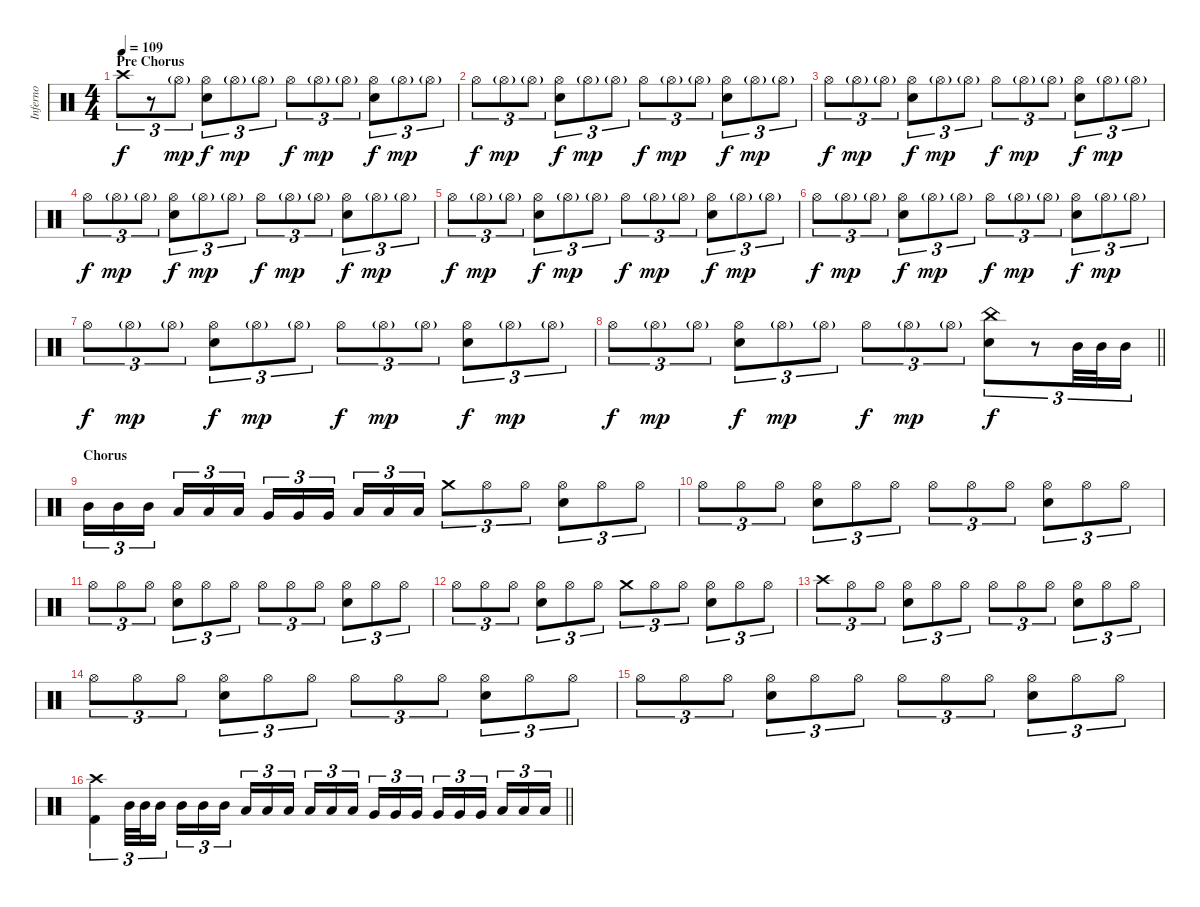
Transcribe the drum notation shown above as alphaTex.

\track ("Inferno" "Inferno") {instrument percussion}
\staff {score}
\articulation defaults
\ts (4 4)
\section ("" "Pre Chorus")
\tempo 109
\clef neutral
\ks c "Crash high (hit)".8{tu (3 2) dy f}
r.8{tu (3 2)} "Hi-Hat (open)"{g}.8{tu (3 2) dy mp} ("Hi-Hat (open)" "Snare (hit) 2").8{tu (3 2) dy f} "Hi-Hat (open)"{g}.8{tu (3 2) dy mp} "Hi-Hat (open)"{g}.8{tu (3 2)} "Hi-Hat (open)".8{tu (3 2) dy f} "Hi-Hat (open)"{g}.8{tu (3 2) dy mp} "Hi-Hat (open)"{g}.8{tu (3 2)} ("Hi-Hat (open)" "Snare (hit) 2").8{tu (3 2) dy f} "Hi-Hat (open)"{g}.8{tu (3 2) dy mp} "Hi-Hat (open)"{g}.8{tu (3 2)} |
"Hi-Hat (open)".8{tu (3 2) dy f} "Hi-Hat (open)"{g}.8{tu (3 2) dy mp} "Hi-Hat (open)"{g}.8{tu (3 2)} ("Hi-Hat (open)" "Snare (hit) 2").8{tu (3 2) dy f} "Hi-Hat (open)"{g}.8{tu (3 2) dy mp} "Hi-Hat (open)"{g}.8{tu (3 2)} "Hi-Hat (open)".8{tu (3 2) dy f} "Hi-Hat (open)"{g}.8{tu (3 2) dy mp} "Hi-Hat (open)"{g}.8{tu (3 2)} ("Hi-Hat (open)" "Snare (hit) 2").8{tu (3 2) dy f} "Hi-Hat (open)"{g}.8{tu (3 2) dy mp} "Hi-Hat (open)"{g}.8{tu (3 2)} |
"Hi-Hat (open)".8{tu (3 2) dy f} "Hi-Hat (open)"{g}.8{tu (3 2) dy mp} "Hi-Hat (open)"{g}.8{tu (3 2)} ("Hi-Hat (open)" "Snare (hit) 2").8{tu (3 2) dy f} "Hi-Hat (open)"{g}.8{tu (3 2) dy mp} "Hi-Hat (open)"{g}.8{tu (3 2)} "Hi-Hat (open)".8{tu (3 2) dy f} "Hi-Hat (open)"{g}.8{tu (3 2) dy mp} "Hi-Hat (open)"{g}.8{tu (3 2)} ("Hi-Hat (open)" "Snare (hit) 2").8{tu (3 2) dy f} "Hi-Hat (open)"{g}.8{tu (3 2) dy mp} "Hi-Hat (open)"{g}.8{tu (3 2)} |
"Hi-Hat (open)".8{tu (3 2) dy f} "Hi-Hat (open)"{g}.8{tu (3 2) dy mp} "Hi-Hat (open)"{g}.8{tu (3 2)} ("Hi-Hat (open)" "Snare (hit) 2").8{tu (3 2) dy f} "Hi-Hat (open)"{g}.8{tu (3 2) dy mp} "Hi-Hat (open)"{g}.8{tu (3 2)} "Hi-Hat (open)".8{tu (3 2) dy f} "Hi-Hat (open)"{g}.8{tu (3 2) dy mp} "Hi-Hat (open)"{g}.8{tu (3 2)} ("Hi-Hat (open)" "Snare (hit) 2").8{tu (3 2) dy f} "Hi-Hat (open)"{g}.8{tu (3 2) dy mp} "Hi-Hat (open)"{g}.8{tu (3 2)} |
"Hi-Hat (open)".8{tu (3 2) dy f} "Hi-Hat (open)"{g}.8{tu (3 2) dy mp} "Hi-Hat (open)"{g}.8{tu (3 2)} ("Hi-Hat (open)" "Snare (hit) 2").8{tu (3 2) dy f} "Hi-Hat (open)"{g}.8{tu (3 2) dy mp} "Hi-Hat (open)"{g}.8{tu (3 2)} "Hi-Hat (open)".8{tu (3 2) dy f} "Hi-Hat (open)"{g}.8{tu (3 2) dy mp} "Hi-Hat (open)"{g}.8{tu (3 2)} ("Hi-Hat (open)" "Snare (hit) 2").8{tu (3 2) dy f} "Hi-Hat (open)"{g}.8{tu (3 2) dy mp} "Hi-Hat (open)"{g}.8{tu (3 2)} |
"Hi-Hat (open)".8{tu (3 2) dy f} "Hi-Hat (open)"{g}.8{tu (3 2) dy mp} "Hi-Hat (open)"{g}.8{tu (3 2)} ("Hi-Hat (open)" "Snare (hit) 2").8{tu (3 2) dy f} "Hi-Hat (open)"{g}.8{tu (3 2) dy mp} "Hi-Hat (open)"{g}.8{tu (3 2)} "Hi-Hat (open)".8{tu (3 2) dy f} "Hi-Hat (open)"{g}.8{tu (3 2) dy mp} "Hi-Hat (open)"{g}.8{tu (3 2)} ("Hi-Hat (open)" "Snare (hit) 2").8{tu (3 2) dy f} "Hi-Hat (open)"{g}.8{tu (3 2) dy mp} "Hi-Hat (open)"{g}.8{tu (3 2)} |
"Hi-Hat (open)".8{tu (3 2) dy f} "Hi-Hat (open)"{g}.8{tu (3 2) dy mp} "Hi-Hat (open)"{g}.8{tu (3 2)} ("Hi-Hat (open)" "Snare (hit) 2").8{tu (3 2) dy f} "Hi-Hat (open)"{g}.8{tu (3 2) dy mp} "Hi-Hat (open)"{g}.8{tu (3 2)} "Hi-Hat (open)".8{tu (3 2) dy f} "Hi-Hat (open)"{g}.8{tu (3 2) dy mp} "Hi-Hat (open)"{g}.8{tu (3 2)} ("Hi-Hat (open)" "Snare (hit) 2").8{tu (3 2) dy f} "Hi-Hat (open)"{g}.8{tu (3 2) dy mp} "Hi-Hat (open)"{g}.8{tu (3 2)} |
\barLineRight lightlight "Hi-Hat (open)".8{tu (3 2) dy f} "Hi-Hat (open)"{g}.8{tu (3 2) dy mp} "Hi-Hat (open)"{g}.8{tu (3 2)}
("Hi-Hat (open)" "Snare (hit) 2").8{tu (3 2) dy f} "Hi-Hat (open)"{g}.8{tu (3 2) dy mp} "Hi-Hat (open)"{g}.8{tu (3 2)} "Hi-Hat (open)".8{tu (3 2) dy f} "Hi-Hat (open)"{g}.8{tu (3 2) dy mp} "Hi-Hat (open)"{g}.8{tu (3 2)} ("China (hit)" "Snare (hit) 2").8{tu (3 2) dy f} r.8{tu (3 2)} "Mid Tom (hit)".32{tu (3 2)} "Mid Tom (hit)".32{tu (3 2)} "Mid Tom (hit)".16{tu (3 2)} |
\section ("" "Chorus")
"Mid Tom (hit)".16{tu (3 2)} "Mid Tom (hit)".16{tu (3 2)} "Mid Tom (hit)".16{tu (3 2) beam splitsecondary} "Low Tom (hit)".16{tu (3 2)} "Low Tom (hit)".16{tu (3 2)} "Low Tom (hit)".16{tu (3 2)} "Very Low Tom (hit)".16{tu (3 2)} "Very Low Tom (hit)".16{tu (3 2)} "Very Low Tom (hit)".16{tu (3 2) beam splitsecondary} "Low Floor Tom (hit)".16{tu (3 2)} "Low Floor Tom (hit)".16{tu (3 2)} "Low Floor Tom (hit)".16{tu (3 2)} "Crash medium (hit)".8{tu (3 2)} "Hi-Hat (open)".8{tu (3 2)} "Hi-Hat (open)".8{tu (3 2)} ("Hi-Hat (open)" "Snare (hit) 2").8{tu (3 2)} "Hi-Hat (open)".8{tu (3 2)} "Hi-Hat (open)".8{tu (3 2)} |
"Hi-Hat (open)".8{tu (3 2)} "Hi-Hat (open)".8{tu (3 2)} "Hi-Hat (open)".8{tu (3 2)} ("Hi-Hat (open)" "Snare (hit) 2").8{tu (3 2)} "Hi-Hat (open)".8{tu (3 2)} "Hi-Hat (open)".8{tu (3 2)} "Hi-Hat (open)".8{tu (3 2)} "Hi-Hat (open)".8{tu (3 2)} "Hi-Hat (open)".8{tu (3 2)} ("Hi-Hat (open)" "Snare (hit) 2").8{tu (3 2)} "Hi-Hat (open)".8{tu (3 2)} "Hi-Hat (open)".8{tu (3 2)} |
"Hi-Hat (open)".8{tu (3 2)} "Hi-Hat (open)".8{tu (3 2)} "Hi-Hat (open)".8{tu (3 2)} ("Hi-Hat (open)" "Snare (hit) 2").8{tu (3 2)} "Hi-Hat (open)".8{tu (3 2)} "Hi-Hat (open)".8{tu (3 2)} "Hi-Hat (open)".8{tu (3 2)} "Hi-Hat (open)".8{tu (3 2)} "Hi-Hat (open)".8{tu (3 2)} ("Hi-Hat (open)" "Snare (hit) 2").8{tu (3 2)} "Hi-Hat (open)".8{tu (3 2)} "Hi-Hat (open)".8{tu (3 2)} |
"Hi-Hat (open)".8{tu (3 2)} "Hi-Hat (open)".8{tu (3 2)} "Hi-Hat (open)".8{tu (3 2)} ("Hi-Hat (open)" "Snare (hit) 2").8{tu (3 2)} "Hi-Hat (open)".8{tu (3 2)} "Hi-Hat (open)".8{tu (3 2)} "Crash medium (hit)".8{tu (3 2)} "Hi-Hat (open)".8{tu (3 2)} "Hi-Hat (open)".8{tu (3 2)} ("Hi-Hat (open)" "Snare (hit) 2").8{tu (3 2)} "Hi-Hat (open)".8{tu (3 2)} "Hi-Hat (open)".8{tu (3 2)} |
"Crash high (hit)".8{tu (3 2)} "Hi-Hat (open)".8{tu (3 2)} "Hi-Hat (open)".8{tu (3 2)} ("Hi-Hat (open)" "Snare (hit) 2").8{tu (3 2)} "Hi-Hat (open)".8{tu (3 2)} "Hi-Hat (open)".8{tu (3 2)} "Hi-Hat (open)".8{tu (3 2)} "Hi-Hat (open)".8{tu (3 2)} "Hi-Hat (open)".8{tu (3 2)} ("Hi-Hat (open)" "Snare (hit) 2").8{tu (3 2)} "Hi-Hat (open)".8{tu (3 2)} "Hi-Hat (open)".8{tu (3 2)} |
"Hi-Hat (open)".8{tu (3 2)} "Hi-Hat (open)".8{tu (3 2)} "Hi-Hat (open)".8{tu (3 2)} ("Hi-Hat (open)" "Snare (hit) 2").8{tu (3 2)} "Hi-Hat (open)".8{tu (3 2)} "Hi-Hat (open)".8{tu (3 2)} "Hi-Hat (open)".8{tu (3 2)} "Hi-Hat (open)".8{tu (3 2)} "Hi-Hat (open)".8{tu (3 2)} ("Hi-Hat (open)" "Snare (hit) 2").8{tu (3 2)} "Hi-Hat (open)".8{tu (3 2)} "Hi-Hat (open)".8{tu (3 2)} |
"Hi-Hat (open)".8{tu (3 2)} "Hi-Hat (open)".8{tu (3 2)} "Hi-Hat (open)".8{tu (3 2)} ("Hi-Hat (open)" "Snare (hit) 2").8{tu (3 2)} "Hi-Hat (open)".8{tu (3 2)} "Hi-Hat (open)".8{tu (3 2)} "Hi-Hat (open)".8{tu (3 2)} "Hi-Hat (open)".8{tu (3 2)} "Hi-Hat (open)".8{tu (3 2)} ("Hi-Hat (open)" "Snare (hit) 2").8{tu (3 2)} "Hi-Hat (open)".8{tu (3 2)} "Hi-Hat (open)".8{tu (3 2)} |
\barLineRight lightlight
("Crash high (hit)" "Kick (hit) 2").4{tu (3 2)} "Mid Tom (hit)".32{tu (3 2)} "Mid Tom (hit)".32{tu (3 2)} "Mid Tom (hit)".16{tu (3 2)} "Mid Tom (hit)".16{tu (3 2)} "Mid Tom (hit)".16{tu (3 2)} "Mid Tom (hit)".16{tu (3 2) beam splitsecondary} "Low Tom (hit)".16{tu (3 2)} "Low Tom (hit)".16{tu (3 2)} "Low Tom (hit)".16{tu (3 2)} "Low Tom (hit)".16{tu (3 2)} "Low Tom (hit)".16{tu (3 2)} "Low Tom (hit)".16{tu (3 2) beam splitsecondary} "Very Low Tom (hit)".16{tu (3 2)} "Very Low Tom (hit)".16{tu (3 2)} "Very Low Tom (hit)".16{tu (3 2)} "Very Low Tom (hit)".16{tu (3 2)} "Very Low Tom (hit)".16{tu (3 2)} "Very Low Tom (hit)".16{tu (3 2) beam splitsecondary} "Low Floor Tom (hit)".16{tu (3 2)} "Low Floor Tom (hit)".16{tu (3 2)} "Low Floor Tom (hit)".16{tu (3 2)}
